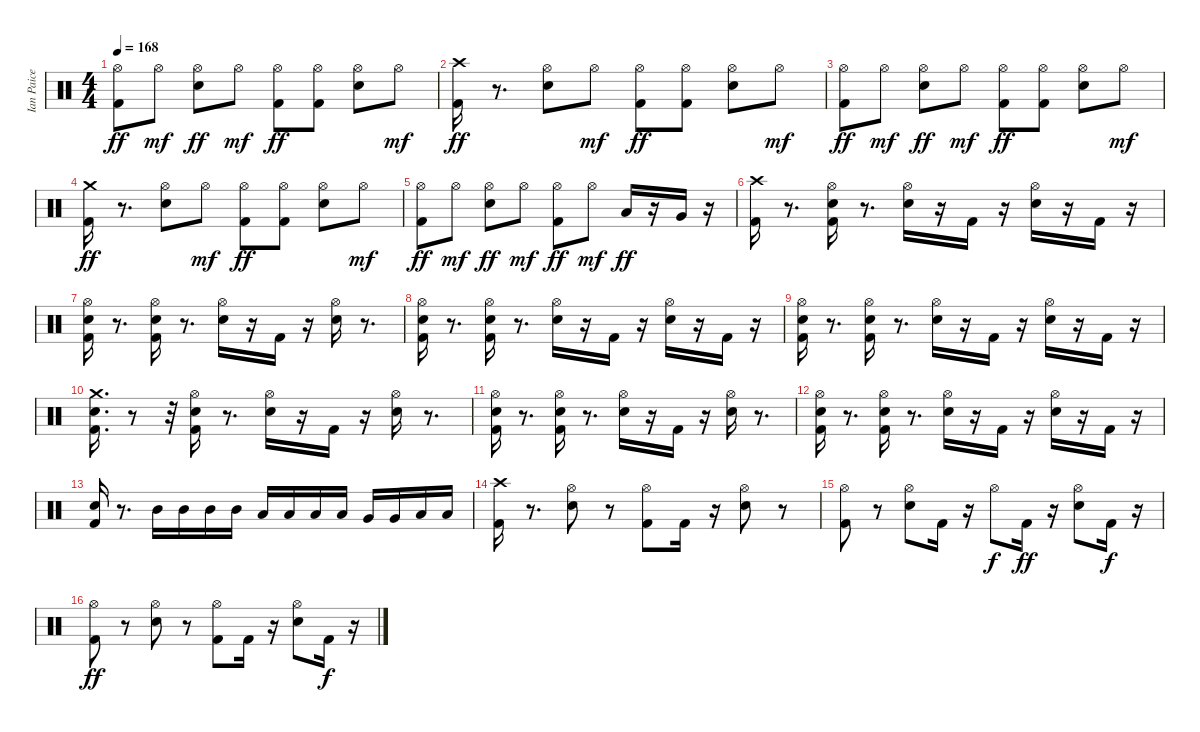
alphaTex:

\track ("Ian Paice" "Ian Paice") {instrument percussion}
\staff {score}
\articulation defaults
\ts (4 4)
\tempo 168
\clef neutral
\ks c
("Hi-Hat (open)" "Kick (hit) 2").8{dy ff} "Hi-Hat (open)".8{dy mf} ("Hi-Hat (open)" "Electric Snare (hit)").8{dy ff} "Hi-Hat (open)".8{dy mf} ("Hi-Hat (open)" "Kick (hit) 2").8{dy ff} ("Hi-Hat (open)" "Kick (hit) 2").8 ("Hi-Hat (open)" "Electric Snare (hit)").8 "Hi-Hat (open)".8{dy mf} |
("Crash high (hit)" "Kick (hit) 2").16{dy ff} r.8{d} ("Hi-Hat (open)" "Electric Snare (hit)").8 "Hi-Hat (open)".8{dy mf} ("Hi-Hat (open)" "Kick (hit) 2").8{dy ff} ("Hi-Hat (open)" "Kick (hit) 2").8 ("Hi-Hat (open)" "Electric Snare (hit)").8 "Hi-Hat (open)".8{dy mf} |
("Hi-Hat (open)" "Kick (hit) 2").8{dy ff} "Hi-Hat (open)".8{dy mf} ("Hi-Hat (open)" "Electric Snare (hit)").8{dy ff} "Hi-Hat (open)".8{dy mf} ("Hi-Hat (open)" "Kick (hit) 2").8{dy ff} ("Hi-Hat (open)" "Kick (hit) 2").8 ("Hi-Hat (open)" "Electric Snare (hit)").8 "Hi-Hat (open)".8{dy mf} |
("Crash medium (hit)" "Kick (hit) 2").16{dy ff} r.8{d} ("Hi-Hat (open)" "Electric Snare (hit)").8 "Hi-Hat (open)".8{dy mf} ("Hi-Hat (open)" "Kick (hit) 2").8{dy ff} ("Hi-Hat (open)" "Kick (hit) 2").8 ("Hi-Hat (open)" "Electric Snare (hit)").8 "Hi-Hat (open)".8{dy mf} |
("Hi-Hat (open)" "Kick (hit) 2").8{dy ff} "Hi-Hat (open)".8{dy mf} ("Hi-Hat (open)" "Electric Snare (hit)").8{dy ff} "Hi-Hat (open)".8{dy mf} ("Hi-Hat (open)" "Kick (hit) 2").8{dy ff} "Hi-Hat (open)".8{dy mf} "Low Tom (hit)".16{dy ff} r.16 "Very Low Tom (hit)".16 r.16 |
("Kick (hit) 2" "Crash high (hit)").16 r.8{d} ("Electric Snare (hit)" "Kick (hit) 2" "Hi-Hat (open)").16 r.8{d} ("Electric Snare (hit)" "Hi-Hat (open)").16 r.16 "Kick (hit) 2".16 r.16 ("Electric Snare (hit)" "Hi-Hat (open)").16 r.16 "Kick (hit) 2".16 r.16 |
("Electric Snare (hit)" "Kick (hit) 2" "Hi-Hat (open)").16 r.8{d} ("Electric Snare (hit)" "Kick (hit) 2" "Hi-Hat (open)").16 r.8{d} ("Electric Snare (hit)" "Hi-Hat (open)").16 r.16 "Kick (hit) 2".16 r.16 ("Electric Snare (hit)" "Hi-Hat (open)").16 r.8{d} |
("Electric Snare (hit)" "Kick (hit) 2" "Hi-Hat (open)").16 r.8{d} ("Electric Snare (hit)" "Kick (hit) 2" "Hi-Hat (open)").16 r.8{d} ("Electric Snare (hit)" "Hi-Hat (open)").16 r.16 "Kick (hit) 2".16 r.16 ("Electric Snare (hit)" "Hi-Hat (open)").16 r.16 "Kick (hit) 2".16 r.16 |
("Electric Snare (hit)" "Kick (hit) 2" "Hi-Hat (open)").16 r.8{d} ("Electric Snare (hit)" "Kick (hit) 2" "Hi-Hat (open)").16 r.8{d} ("Electric Snare (hit)" "Hi-Hat (open)").16 r.16 "Kick (hit) 2".16 r.16 ("Electric Snare (hit)" "Hi-Hat (open)").16 r.16 "Kick (hit) 2".16 r.16 |
("Electric Snare (hit)" "Kick (hit) 2" "Crash medium (hit)").16{d} r.8 r.32 ("Electric Snare (hit)" "Kick (hit) 2" "Hi-Hat (open)").16 r.8{d} ("Electric Snare (hit)" "Hi-Hat (open)").16 r.16 "Kick (hit) 2".16 r.16 ("Electric Snare (hit)" "Hi-Hat (open)").16 r.8{d} |
("Electric Snare (hit)" "Kick (hit) 2" "Hi-Hat (open)").16 r.8{d} ("Electric Snare (hit)" "Kick (hit) 2" "Hi-Hat (open)").16 r.8{d} ("Electric Snare (hit)" "Hi-Hat (open)").16 r.16 "Kick (hit) 2".16 r.16 ("Electric Snare (hit)" "Hi-Hat (open)").16 r.8{d} |
("Electric Snare (hit)" "Kick (hit) 2" "Hi-Hat (open)").16 r.8{d} ("Electric Snare (hit)" "Kick (hit) 2" "Hi-Hat (open)").16 r.8{d} ("Electric Snare (hit)" "Hi-Hat (open)").16 r.16 "Kick (hit) 2".16 r.16 ("Electric Snare (hit)" "Hi-Hat (open)").16 r.16 "Kick (hit) 2".16 r.16 |
("Electric Snare (hit)" "Kick (hit) 2").16 r.8{d} "Mid Tom (hit)".16 "Mid Tom (hit)".16 "Mid Tom (hit)".16 "Mid Tom (hit)".16 "Low Tom (hit)".16 "Low Tom (hit)".16 "Low Tom (hit)".16 "Low Tom (hit)".16 "Very Low Tom (hit)".16 "Very Low Tom (hit)".16 "Low Floor Tom (hit)".16 "Low Floor Tom (hit)".16 |
("Crash high (hit)" "Kick (hit) 2").16 r.8{d} ("Hi-Hat (open)" "Electric Snare (hit)").8 r.8 ("Kick (hit) 2" "Hi-Hat (open)").8 "Kick (hit) 2".16 r.16 ("Hi-Hat (open)" "Electric Snare (hit)").8 r.8 |
("Kick (hit) 2" "Hi-Hat (open)").8 r.8 ("Hi-Hat (open)" "Electric Snare (hit)").8 "Kick (hit) 2".16 r.16 "Hi-Hat (open)".8{dy f} "Kick (hit) 2".16{dy ff} r.16 ("Hi-Hat (open)" "Electric Snare (hit)").8 "Kick (hit) 2".16{dy f} r.16 |
("Kick (hit) 2" "Hi-Hat (open)").8{dy ff} r.8 ("Hi-Hat (open)" "Electric Snare (hit)").8 r.8 ("Kick (hit) 2" "Hi-Hat (open)").8 "Kick (hit) 2".16 r.16 ("Hi-Hat (open)" "Electric Snare (hit)").8 "Kick (hit) 2".16{dy f} r.16
